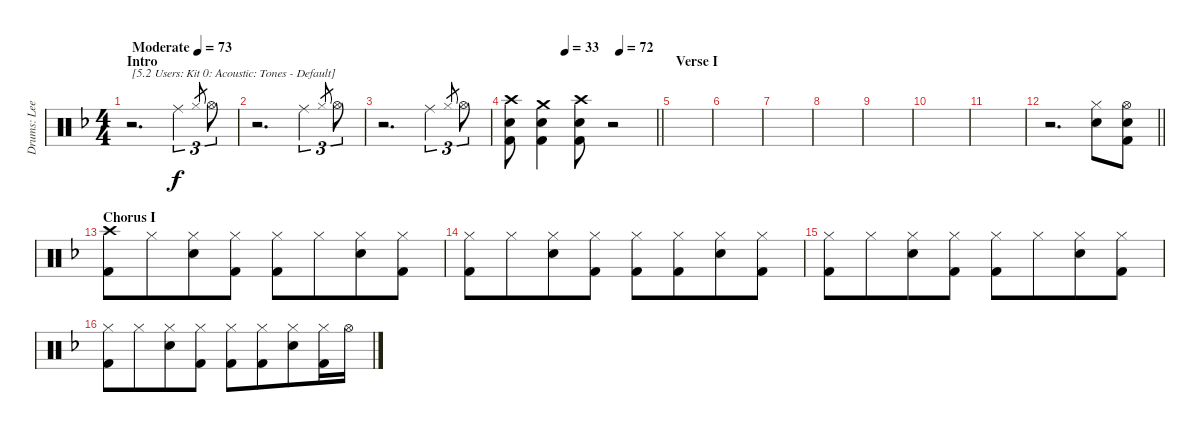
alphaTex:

\track ("Drums: Lee" "Drums: Lee") {instrument percussion}
\staff {score}
\articulation defaults
\ts (4 4)
\section ("" "Intro")
\tempo (73 "Moderate")
\clef neutral
\ks f
r.2{d txt "[5.2 Users: Kit 0: Acoustic: Tones - Default]" dy f} "Ride (middle)".4{tu (3 2)} "Hi-Hat (closed)".8{gr} "Hi-Hat (open)".8{tu (3 2)} |
r.2{d} "Ride (middle)".4{tu (3 2)} "Hi-Hat (closed)".8{gr} "Hi-Hat (open)".8{tu (3 2)} |
r.2{d} "Ride (middle)".4{tu (3 2)} "Hi-Hat (closed)".8{gr} "Hi-Hat (open)".8{tu (3 2)} |
\tempo (33 0.375)
\tempo (72 0.75)
\barLineRight lightlight
("Crash high (hit)" "Snare (hit) 2" "Kick (hit) 2").8 ("Crash medium (hit)" "Snare (hit) 2" "Kick (hit) 2").4 ("Crash high (hit)" "Snare (hit) 2" "Kick (hit) 2").8 r.2 |
\section ("" "Verse I")
|
|
|
|
|
|
|
\barLineRight lightlight
r.2{d} ("Hi-Hat (closed)" "Snare (hit) 2").8 ("Hi-Hat (open)" "Snare (hit) 2" "Kick (hit) 2").8 |
\section ("" "Chorus I")
("Crash high (hit)" "Kick (hit) 2").8 "Hi-Hat (closed)".8{beam merge} ("Hi-Hat (closed)" "Snare (hit) 2").8 ("Hi-Hat (closed)" "Kick (hit) 2").8 ("Hi-Hat (closed)" "Kick (hit) 2").8 "Hi-Hat (closed)".8{beam merge} ("Hi-Hat (closed)" "Snare (hit) 2").8 ("Hi-Hat (closed)" "Kick (hit) 2").8 |
("Hi-Hat (closed)" "Kick (hit) 2").8 "Hi-Hat (closed)".8{beam merge} ("Hi-Hat (closed)" "Snare (hit) 2").8 ("Hi-Hat (closed)" "Kick (hit) 2").8 ("Hi-Hat (closed)" "Kick (hit) 2").8 ("Hi-Hat (closed)" "Kick (hit) 2").8{beam merge} ("Hi-Hat (closed)" "Snare (hit) 2").8 ("Hi-Hat (closed)" "Kick (hit) 2").8 |
("Hi-Hat (closed)" "Kick (hit) 2").8 "Hi-Hat (closed)".8{beam merge} ("Hi-Hat (closed)" "Snare (hit) 2").8 ("Hi-Hat (closed)" "Kick (hit) 2").8 ("Hi-Hat (closed)" "Kick (hit) 2").8 "Hi-Hat (closed)".8{beam merge} ("Hi-Hat (closed)" "Snare (hit) 2").8 ("Hi-Hat (closed)" "Kick (hit) 2").8 |
("Hi-Hat (closed)" "Kick (hit) 2").8 "Hi-Hat (closed)".8{beam merge} ("Hi-Hat (closed)" "Snare (hit) 2").8 ("Hi-Hat (closed)" "Kick (hit) 2").8 ("Hi-Hat (closed)" "Kick (hit) 2").8 ("Hi-Hat (closed)" "Kick (hit) 2").8{beam merge} ("Hi-Hat (closed)" "Snare (hit) 2").8 ("Hi-Hat (closed)" "Kick (hit) 2").16 "Hi-Hat (open)".16
